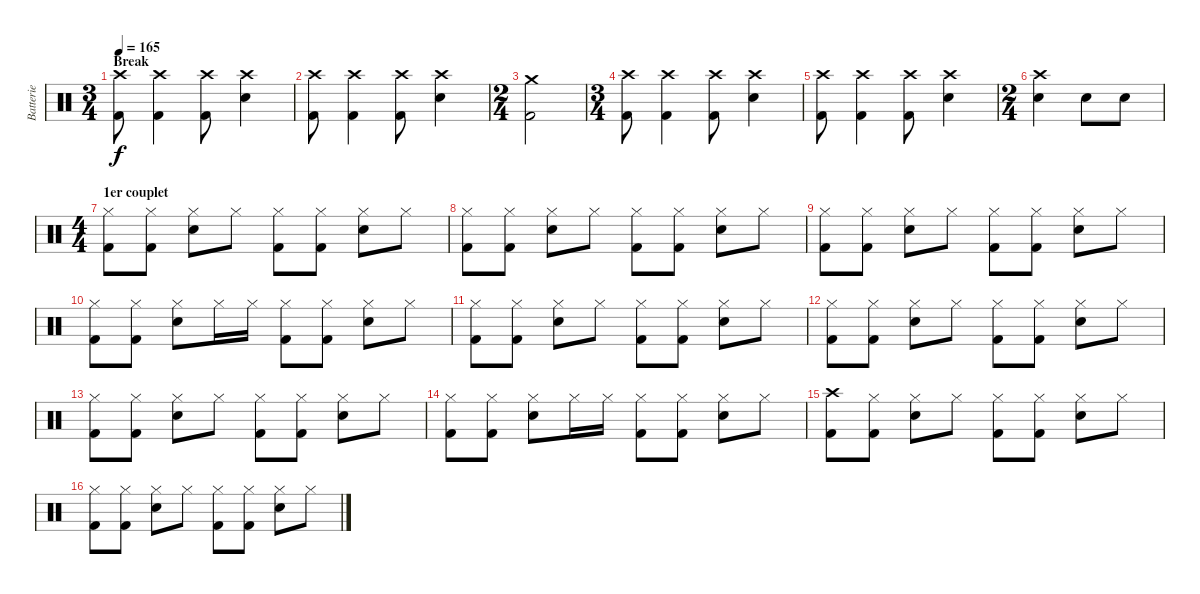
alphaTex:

\track ("Batterie" "Batterie") {instrument percussion}
\staff {score}
\articulation defaults
\ts (3 4)
\section ("" "Break")
\tempo 165
\clef neutral
\ks c
("Crash high (hit)" "Kick (hit) 2").8{dy f} ("Crash high (hit)" "Kick (hit) 2").4 ("Crash high (hit)" "Kick (hit) 2").8 ("Crash high (hit)" "Snare (hit) 2").4 |
("Crash high (hit)" "Kick (hit) 2").8 ("Crash high (hit)" "Kick (hit) 2").4 ("Crash high (hit)" "Kick (hit) 2").8 ("Crash high (hit)" "Snare (hit) 2").4 |
\ts (2 4)
("Crash medium (hit)" "Kick (hit) 2").2 |
\ts (3 4)
("Crash high (hit)" "Kick (hit) 2").8 ("Crash high (hit)" "Kick (hit) 2").4 ("Crash high (hit)" "Kick (hit) 2").8 ("Crash high (hit)" "Snare (hit) 2").4 |
("Crash high (hit)" "Kick (hit) 2").8 ("Crash high (hit)" "Kick (hit) 2").4 ("Crash high (hit)" "Kick (hit) 2").8 ("Crash high (hit)" "Snare (hit) 2").4 |
\ts (2 4)
("Crash high (hit)" "Snare (hit) 2").4 "Snare (hit) 2".8 "Snare (hit) 2".8 |
\ts (4 4)
\section ("" "1er couplet")
("Hi-Hat (closed)" "Kick (hit) 2").8{volume 11} ("Hi-Hat (closed)" "Kick (hit) 2").8 ("Hi-Hat (closed)" "Electric Snare (hit)").8 "Hi-Hat (closed)".8 ("Hi-Hat (closed)" "Kick (hit) 2").8 ("Hi-Hat (closed)" "Kick (hit) 2").8 ("Hi-Hat (closed)" "Electric Snare (hit)").8 "Hi-Hat (closed)".8 |
("Hi-Hat (closed)" "Kick (hit) 2").8 ("Hi-Hat (closed)" "Kick (hit) 2").8 ("Hi-Hat (closed)" "Electric Snare (hit)").8 "Hi-Hat (closed)".8 ("Hi-Hat (closed)" "Kick (hit) 2").8 ("Hi-Hat (closed)" "Kick (hit) 2").8 ("Hi-Hat (closed)" "Electric Snare (hit)").8 "Hi-Hat (closed)".8 |
("Hi-Hat (closed)" "Kick (hit) 2").8 ("Hi-Hat (closed)" "Kick (hit) 2").8 ("Hi-Hat (closed)" "Electric Snare (hit)").8 "Hi-Hat (closed)".8 ("Hi-Hat (closed)" "Kick (hit) 2").8 ("Hi-Hat (closed)" "Kick (hit) 2").8 ("Hi-Hat (closed)" "Electric Snare (hit)").8 "Hi-Hat (closed)".8 |
("Hi-Hat (closed)" "Kick (hit) 2").8 ("Hi-Hat (closed)" "Kick (hit) 2").8 ("Hi-Hat (closed)" "Electric Snare (hit)").8 "Hi-Hat (closed)".16 "Hi-Hat (closed)".16 ("Hi-Hat (closed)" "Kick (hit) 2").8 ("Hi-Hat (closed)" "Kick (hit) 2").8 ("Hi-Hat (closed)" "Electric Snare (hit)").8 "Hi-Hat (closed)".8 |
("Hi-Hat (closed)" "Kick (hit) 2").8 ("Hi-Hat (closed)" "Kick (hit) 2").8 ("Hi-Hat (closed)" "Electric Snare (hit)").8 "Hi-Hat (closed)".8 ("Hi-Hat (closed)" "Kick (hit) 2").8 ("Hi-Hat (closed)" "Kick (hit) 2").8 ("Hi-Hat (closed)" "Electric Snare (hit)").8 "Hi-Hat (closed)".8 |
("Hi-Hat (closed)" "Kick (hit) 2").8 ("Hi-Hat (closed)" "Kick (hit) 2").8 ("Hi-Hat (closed)" "Electric Snare (hit)").8 "Hi-Hat (closed)".8 ("Hi-Hat (closed)" "Kick (hit) 2").8 ("Hi-Hat (closed)" "Kick (hit) 2").8 ("Hi-Hat (closed)" "Electric Snare (hit)").8 "Hi-Hat (closed)".8 |
("Hi-Hat (closed)" "Kick (hit) 2").8 ("Hi-Hat (closed)" "Kick (hit) 2").8 ("Hi-Hat (closed)" "Electric Snare (hit)").8 "Hi-Hat (closed)".8 ("Hi-Hat (closed)" "Kick (hit) 2").8 ("Hi-Hat (closed)" "Kick (hit) 2").8 ("Hi-Hat (closed)" "Electric Snare (hit)").8 "Hi-Hat (closed)".8 |
("Hi-Hat (closed)" "Kick (hit) 2").8 ("Hi-Hat (closed)" "Kick (hit) 2").8 ("Hi-Hat (closed)" "Electric Snare (hit)").8 "Hi-Hat (closed)".16 "Hi-Hat (closed)".16 ("Hi-Hat (closed)" "Kick (hit) 2").8 ("Hi-Hat (closed)" "Kick (hit) 2").8 ("Hi-Hat (closed)" "Electric Snare (hit)").8 "Hi-Hat (closed)".8 |
("Crash high (hit)" "Kick (hit) 2").8 ("Hi-Hat (closed)" "Kick (hit) 2").8 ("Hi-Hat (closed)" "Electric Snare (hit)").8 "Hi-Hat (closed)".8 ("Hi-Hat (closed)" "Kick (hit) 2").8 ("Hi-Hat (closed)" "Kick (hit) 2").8 ("Hi-Hat (closed)" "Electric Snare (hit)").8 "Hi-Hat (closed)".8 |
("Hi-Hat (closed)" "Kick (hit) 2").8 ("Hi-Hat (closed)" "Kick (hit) 2").8 ("Hi-Hat (closed)" "Electric Snare (hit)").8 "Hi-Hat (closed)".8 ("Hi-Hat (closed)" "Kick (hit) 2").8 ("Hi-Hat (closed)" "Kick (hit) 2").8 ("Hi-Hat (closed)" "Electric Snare (hit)").8 "Hi-Hat (closed)".8
